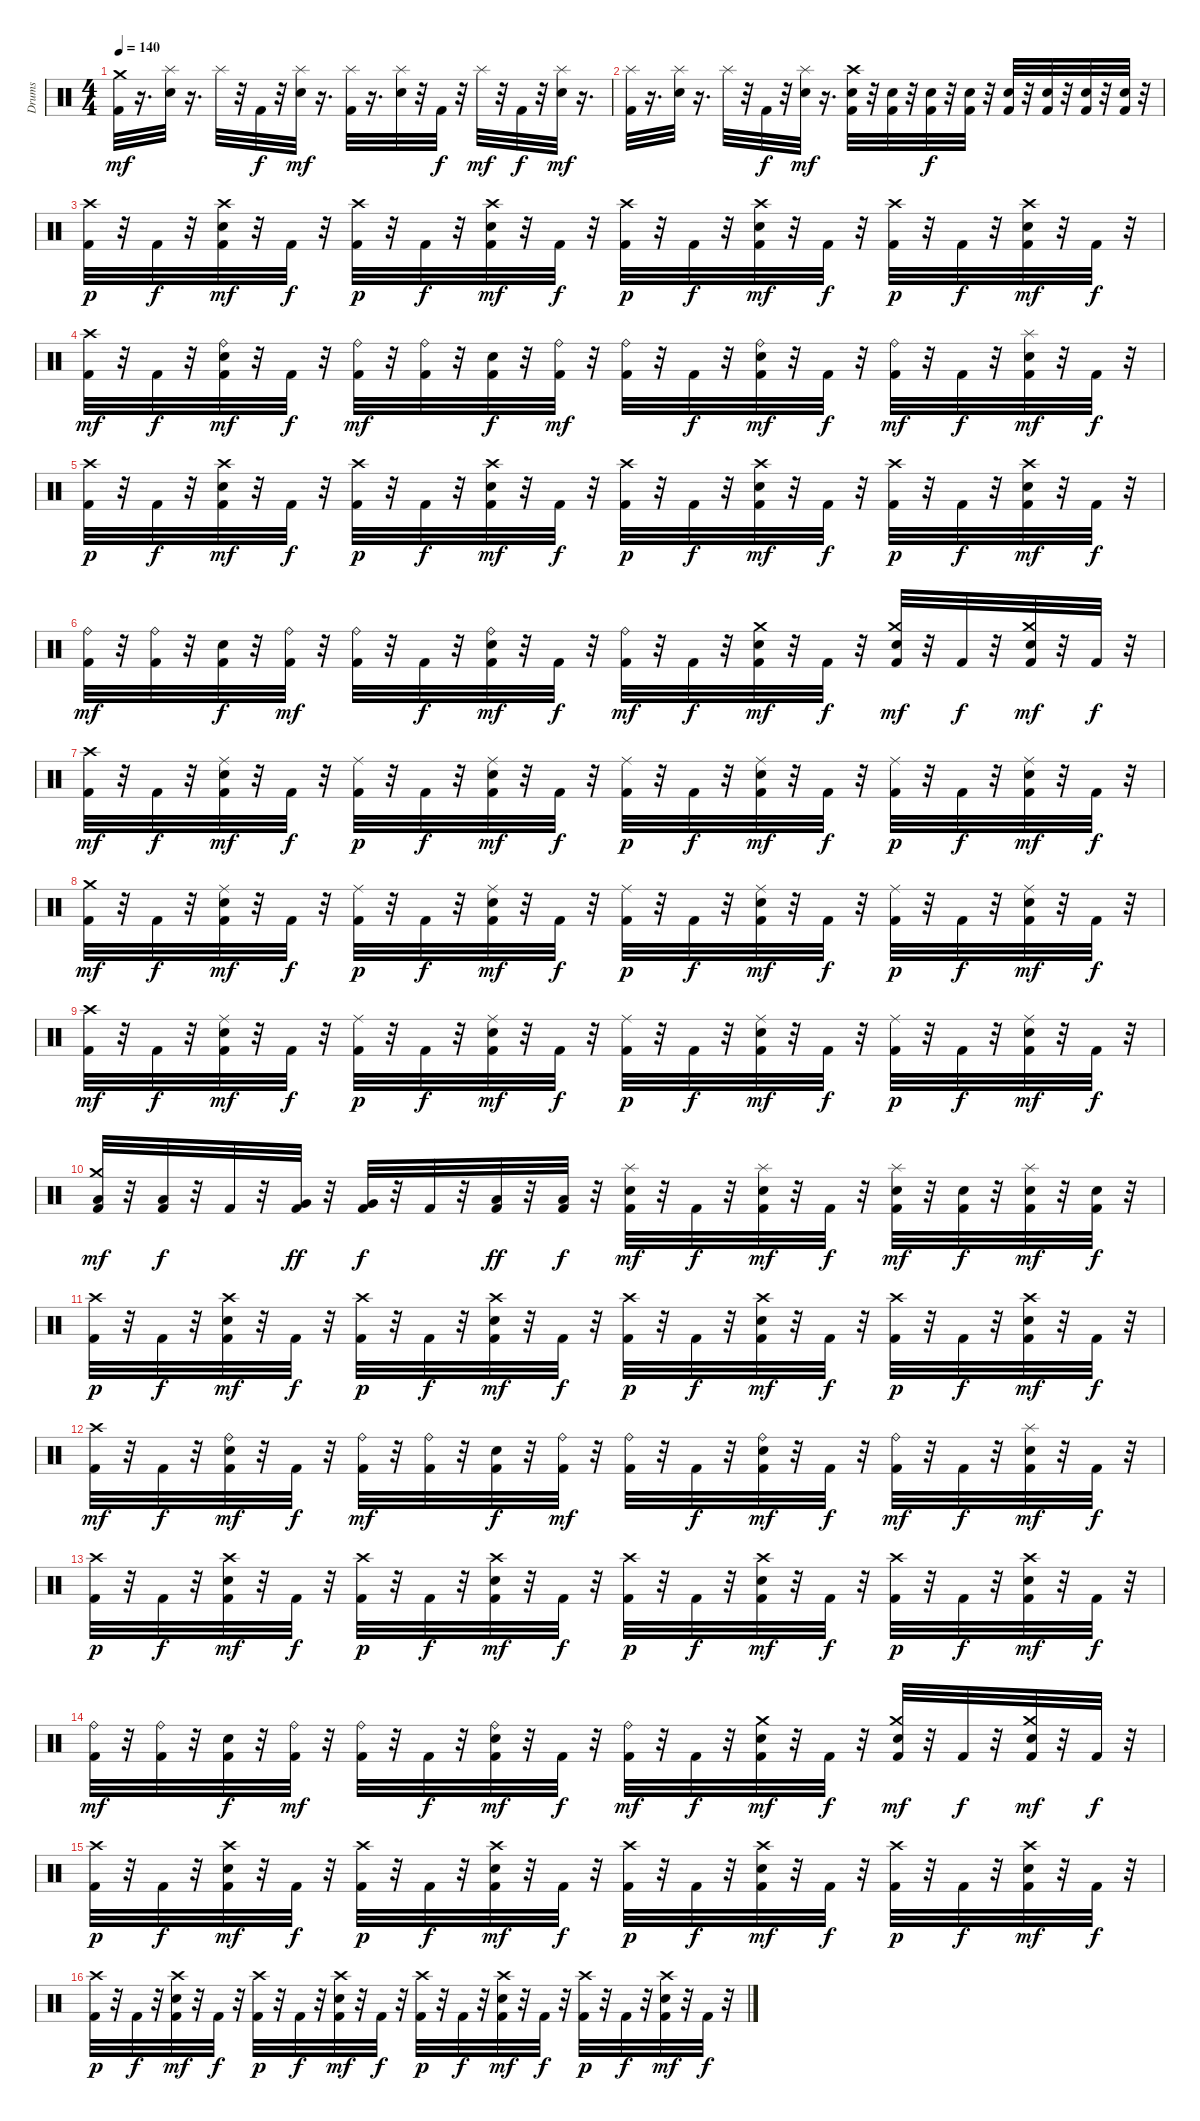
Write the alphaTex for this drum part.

\track ("Drums" "Drums") {instrument percussion}
\staff {score}
\articulation defaults
\ts (4 4)
\tempo 140
\clef neutral
\ks c
("Kick (hit) 2" "Crash medium (hit)").32{dy mf} r.16{d} ("Electric Snare (hit)" "Splash (hit)").32 r.16{d} "Splash (hit)".32 r.32 "Kick (hit) 2".32{dy f} r.32 ("Electric Snare (hit)" "Splash (hit)").32{dy mf} r.16{d} ("Kick (hit) 2" "Splash (hit)").32 r.16{d} ("Electric Snare (hit)" "Splash (hit)").32 r.32 "Kick (hit) 2".32{dy f} r.32 "Splash (hit)".32{dy mf} r.32 "Kick (hit) 2".32{dy f} r.32 ("Electric Snare (hit)" "Splash (hit)").32{dy mf} r.16{d} |
("Kick (hit) 2" "Splash (hit)").32 r.16{d} ("Electric Snare (hit)" "Splash (hit)").32 r.16{d} "Splash (hit)".32 r.32 "Kick (hit) 2".32{dy f} r.32 ("Electric Snare (hit)" "Splash (hit)").32{dy mf} r.16{d} ("Kick (hit) 2" "Electric Snare (hit)" "Crash high (hit)").32 r.32 ("Kick (hit) 2" "Electric Snare (hit)").32 r.32 ("Kick (hit) 2" "Electric Snare (hit)").32{dy f} r.32 ("Kick (hit) 2" "Electric Snare (hit)").32 r.32 ("Kick (hit) 2" "Electric Snare (hit)").32 r.32 ("Kick (hit) 2" "Electric Snare (hit)").32 r.32 ("Kick (hit) 2" "Electric Snare (hit)").32 r.32 ("Kick (hit) 2" "Electric Snare (hit)").32 r.32 |
("Kick (hit) 2" "Crash high (hit)").32{dy p} r.32 "Kick (hit) 2".32{dy f} r.32 ("Kick (hit) 2" "Electric Snare (hit)" "Crash high (hit)").32{dy mf} r.32 "Kick (hit) 2".32{dy f} r.32 ("Kick (hit) 2" "Crash high (hit)").32{dy p} r.32 "Kick (hit) 2".32{dy f} r.32 ("Kick (hit) 2" "Electric Snare (hit)" "Crash high (hit)").32{dy mf} r.32 "Kick (hit) 2".32{dy f} r.32 ("Kick (hit) 2" "Crash high (hit)").32{dy p} r.32 "Kick (hit) 2".32{dy f} r.32 ("Kick (hit) 2" "Electric Snare (hit)" "Crash high (hit)").32{dy mf} r.32 "Kick (hit) 2".32{dy f} r.32 ("Kick (hit) 2" "Crash high (hit)").32{dy p} r.32 "Kick (hit) 2".32{dy f} r.32 ("Kick (hit) 2" "Electric Snare (hit)" "Crash high (hit)").32{dy mf} r.32 "Kick (hit) 2".32{dy f} r.32 |
("Kick (hit) 2" "Crash high (hit)").32{dy mf} r.32 "Kick (hit) 2".32{dy f} r.32 ("Kick (hit) 2" "Electric Snare (hit)" "Ride (bell)").32{dy mf} r.32 "Kick (hit) 2".32{dy f} r.32 ("Kick (hit) 2" "Ride (bell)").32{dy mf} r.32 ("Kick (hit) 2" "Ride (bell)").32 r.32 ("Kick (hit) 2" "Electric Snare (hit)").32{dy f} r.32 ("Kick (hit) 2" "Ride (bell)").32{dy mf} r.32 ("Kick (hit) 2" "Ride (bell)").32 r.32 "Kick (hit) 2".32{dy f} r.32 ("Kick (hit) 2" "Electric Snare (hit)" "Ride (bell)").32{dy mf} r.32 "Kick (hit) 2".32{dy f} r.32 ("Kick (hit) 2" "Ride (bell)").32{dy mf} r.32 "Kick (hit) 2".32{dy f} r.32 ("Kick (hit) 2" "Electric Snare (hit)" "Splash (hit)").32{dy mf} r.32 "Kick (hit) 2".32{dy f} r.32 |
("Kick (hit) 2" "Crash high (hit)").32{dy p} r.32 "Kick (hit) 2".32{dy f} r.32 ("Kick (hit) 2" "Electric Snare (hit)" "Crash high (hit)").32{dy mf} r.32 "Kick (hit) 2".32{dy f} r.32 ("Kick (hit) 2" "Crash high (hit)").32{dy p} r.32 "Kick (hit) 2".32{dy f} r.32 ("Kick (hit) 2" "Electric Snare (hit)" "Crash high (hit)").32{dy mf} r.32 "Kick (hit) 2".32{dy f} r.32 ("Kick (hit) 2" "Crash high (hit)").32{dy p} r.32 "Kick (hit) 2".32{dy f} r.32 ("Kick (hit) 2" "Electric Snare (hit)" "Crash high (hit)").32{dy mf} r.32 "Kick (hit) 2".32{dy f} r.32 ("Kick (hit) 2" "Crash high (hit)").32{dy p} r.32 "Kick (hit) 2".32{dy f} r.32 ("Kick (hit) 2" "Electric Snare (hit)" "Crash high (hit)").32{dy mf} r.32 "Kick (hit) 2".32{dy f} r.32 |
("Kick (hit) 2" "Ride (bell)").32{dy mf} r.32 ("Kick (hit) 2" "Ride (bell)").32 r.32 ("Kick (hit) 2" "Electric Snare (hit)").32{dy f} r.32 ("Kick (hit) 2" "Ride (bell)").32{dy mf} r.32 ("Kick (hit) 2" "Ride (bell)").32 r.32 "Kick (hit) 2".32{dy f} r.32 ("Kick (hit) 2" "Electric Snare (hit)" "Ride (bell)").32{dy mf} r.32 "Kick (hit) 2".32{dy f} r.32 ("Kick (hit) 2" "Ride (bell)").32{dy mf} r.32 "Kick (hit) 2".32{dy f} r.32 ("Kick (hit) 2" "Electric Snare (hit)" "Crash medium (hit)").32{dy mf} r.32 "Kick (hit) 2".32{dy f} r.32 ("Kick (hit) 2" "Electric Snare (hit)" "Crash medium (hit)").32{dy mf} r.32 "Kick (hit) 2".32{dy f} r.32 ("Kick (hit) 2" "Electric Snare (hit)" "Crash medium (hit)").32{dy mf} r.32 "Kick (hit) 2".32{dy f} r.32 |
("Kick (hit) 2" "Crash high (hit)").32{dy mf} r.32 "Kick (hit) 2".32{dy f} r.32 ("Kick (hit) 2" "Electric Snare (hit)" "Ride (middle)").32{dy mf} r.32 "Kick (hit) 2".32{dy f} r.32 ("Kick (hit) 2" "Ride (middle)").32{dy p} r.32 "Kick (hit) 2".32{dy f} r.32 ("Kick (hit) 2" "Electric Snare (hit)" "Ride (middle)").32{dy mf} r.32 "Kick (hit) 2".32{dy f} r.32 ("Kick (hit) 2" "Ride (middle)").32{dy p} r.32 "Kick (hit) 2".32{dy f} r.32 ("Kick (hit) 2" "Electric Snare (hit)" "Ride (middle)").32{dy mf} r.32 "Kick (hit) 2".32{dy f} r.32 ("Kick (hit) 2" "Ride (middle)").32{dy p} r.32 "Kick (hit) 2".32{dy f} r.32 ("Kick (hit) 2" "Electric Snare (hit)" "Ride (middle)").32{dy mf} r.32 "Kick (hit) 2".32{dy f} r.32 |
("Kick (hit) 2" "Crash medium (hit)").32{dy mf} r.32 "Kick (hit) 2".32{dy f} r.32 ("Kick (hit) 2" "Electric Snare (hit)" "Ride (middle)").32{dy mf} r.32 "Kick (hit) 2".32{dy f} r.32 ("Kick (hit) 2" "Ride (middle)").32{dy p} r.32 "Kick (hit) 2".32{dy f} r.32 ("Kick (hit) 2" "Electric Snare (hit)" "Ride (middle)").32{dy mf} r.32 "Kick (hit) 2".32{dy f} r.32 ("Kick (hit) 2" "Ride (middle)").32{dy p} r.32 "Kick (hit) 2".32{dy f} r.32 ("Kick (hit) 2" "Electric Snare (hit)" "Ride (middle)").32{dy mf} r.32 "Kick (hit) 2".32{dy f} r.32 ("Kick (hit) 2" "Ride (middle)").32{dy p} r.32 "Kick (hit) 2".32{dy f} r.32 ("Kick (hit) 2" "Electric Snare (hit)" "Ride (middle)").32{dy mf} r.32 "Kick (hit) 2".32{dy f} r.32 |
("Kick (hit) 2" "Crash high (hit)").32{dy mf} r.32 "Kick (hit) 2".32{dy f} r.32 ("Kick (hit) 2" "Electric Snare (hit)" "Ride (middle)").32{dy mf} r.32 "Kick (hit) 2".32{dy f} r.32 ("Kick (hit) 2" "Ride (middle)").32{dy p} r.32 "Kick (hit) 2".32{dy f} r.32 ("Kick (hit) 2" "Electric Snare (hit)" "Ride (middle)").32{dy mf} r.32 "Kick (hit) 2".32{dy f} r.32 ("Kick (hit) 2" "Ride (middle)").32{dy p} r.32 "Kick (hit) 2".32{dy f} r.32 ("Kick (hit) 2" "Electric Snare (hit)" "Ride (middle)").32{dy mf} r.32 "Kick (hit) 2".32{dy f} r.32 ("Kick (hit) 2" "Ride (middle)").32{dy p} r.32 "Kick (hit) 2".32{dy f} r.32 ("Kick (hit) 2" "Electric Snare (hit)" "Ride (middle)").32{dy mf} r.32 "Kick (hit) 2".32{dy f} r.32 |
("Kick (hit) 2" "Low Tom (hit)" "Crash medium (hit)").32{dy mf} r.32 ("Kick (hit) 2" "Low Tom (hit)").32{dy f} r.32 "Kick (hit) 2".32 r.32 ("Kick (hit) 2" "Very Low Tom (hit)").32{dy ff} r.32 ("Kick (hit) 2" "Very Low Tom (hit)").32{dy f} r.32 "Kick (hit) 2".32 r.32 ("Kick (hit) 2" "Low Floor Tom (hit)").32{dy ff} r.32 ("Kick (hit) 2" "Low Floor Tom (hit)").32{dy f} r.32 ("Kick (hit) 2" "Electric Snare (hit)" "Splash (hit)").32{dy mf} r.32 "Kick (hit) 2".32{dy f} r.32 ("Kick (hit) 2" "Electric Snare (hit)" "Splash (hit)").32{dy mf} r.32 "Kick (hit) 2".32{dy f} r.32 ("Kick (hit) 2" "Electric Snare (hit)" "Splash (hit)").32{dy mf} r.32 ("Kick (hit) 2" "Electric Snare (hit)").32{dy f} r.32 ("Kick (hit) 2" "Electric Snare (hit)" "Splash (hit)").32{dy mf} r.32 ("Kick (hit) 2" "Electric Snare (hit)").32{dy f} r.32 |
("Kick (hit) 2" "Crash high (hit)").32{dy p} r.32 "Kick (hit) 2".32{dy f} r.32 ("Kick (hit) 2" "Electric Snare (hit)" "Crash high (hit)").32{dy mf} r.32 "Kick (hit) 2".32{dy f} r.32 ("Kick (hit) 2" "Crash high (hit)").32{dy p} r.32 "Kick (hit) 2".32{dy f} r.32 ("Kick (hit) 2" "Electric Snare (hit)" "Crash high (hit)").32{dy mf} r.32 "Kick (hit) 2".32{dy f} r.32 ("Kick (hit) 2" "Crash high (hit)").32{dy p} r.32 "Kick (hit) 2".32{dy f} r.32 ("Kick (hit) 2" "Electric Snare (hit)" "Crash high (hit)").32{dy mf} r.32 "Kick (hit) 2".32{dy f} r.32 ("Kick (hit) 2" "Crash high (hit)").32{dy p} r.32 "Kick (hit) 2".32{dy f} r.32 ("Kick (hit) 2" "Electric Snare (hit)" "Crash high (hit)").32{dy mf} r.32 "Kick (hit) 2".32{dy f} r.32 |
("Kick (hit) 2" "Crash high (hit)").32{dy mf} r.32 "Kick (hit) 2".32{dy f} r.32 ("Kick (hit) 2" "Electric Snare (hit)" "Ride (bell)").32{dy mf} r.32 "Kick (hit) 2".32{dy f} r.32 ("Kick (hit) 2" "Ride (bell)").32{dy mf} r.32 ("Kick (hit) 2" "Ride (bell)").32 r.32 ("Kick (hit) 2" "Electric Snare (hit)").32{dy f} r.32 ("Kick (hit) 2" "Ride (bell)").32{dy mf} r.32 ("Kick (hit) 2" "Ride (bell)").32 r.32 "Kick (hit) 2".32{dy f} r.32 ("Kick (hit) 2" "Electric Snare (hit)" "Ride (bell)").32{dy mf} r.32 "Kick (hit) 2".32{dy f} r.32 ("Kick (hit) 2" "Ride (bell)").32{dy mf} r.32 "Kick (hit) 2".32{dy f} r.32 ("Kick (hit) 2" "Electric Snare (hit)" "Splash (hit)").32{dy mf} r.32 "Kick (hit) 2".32{dy f} r.32 |
("Kick (hit) 2" "Crash high (hit)").32{dy p} r.32 "Kick (hit) 2".32{dy f} r.32 ("Kick (hit) 2" "Electric Snare (hit)" "Crash high (hit)").32{dy mf} r.32 "Kick (hit) 2".32{dy f} r.32 ("Kick (hit) 2" "Crash high (hit)").32{dy p} r.32 "Kick (hit) 2".32{dy f} r.32 ("Kick (hit) 2" "Electric Snare (hit)" "Crash high (hit)").32{dy mf} r.32 "Kick (hit) 2".32{dy f} r.32 ("Kick (hit) 2" "Crash high (hit)").32{dy p} r.32 "Kick (hit) 2".32{dy f} r.32 ("Kick (hit) 2" "Electric Snare (hit)" "Crash high (hit)").32{dy mf} r.32 "Kick (hit) 2".32{dy f} r.32 ("Kick (hit) 2" "Crash high (hit)").32{dy p} r.32 "Kick (hit) 2".32{dy f} r.32 ("Kick (hit) 2" "Electric Snare (hit)" "Crash high (hit)").32{dy mf} r.32 "Kick (hit) 2".32{dy f} r.32 |
("Kick (hit) 2" "Ride (bell)").32{dy mf} r.32 ("Kick (hit) 2" "Ride (bell)").32 r.32 ("Kick (hit) 2" "Electric Snare (hit)").32{dy f} r.32 ("Kick (hit) 2" "Ride (bell)").32{dy mf} r.32 ("Kick (hit) 2" "Ride (bell)").32 r.32 "Kick (hit) 2".32{dy f} r.32 ("Kick (hit) 2" "Electric Snare (hit)" "Ride (bell)").32{dy mf} r.32 "Kick (hit) 2".32{dy f} r.32 ("Kick (hit) 2" "Ride (bell)").32{dy mf} r.32 "Kick (hit) 2".32{dy f} r.32 ("Kick (hit) 2" "Electric Snare (hit)" "Crash medium (hit)").32{dy mf} r.32 "Kick (hit) 2".32{dy f} r.32 ("Kick (hit) 2" "Electric Snare (hit)" "Crash medium (hit)").32{dy mf} r.32 "Kick (hit) 2".32{dy f} r.32 ("Kick (hit) 2" "Electric Snare (hit)" "Crash medium (hit)").32{dy mf} r.32 "Kick (hit) 2".32{dy f} r.32 |
("Kick (hit) 2" "Crash high (hit)").32{dy p} r.32 "Kick (hit) 2".32{dy f} r.32 ("Kick (hit) 2" "Electric Snare (hit)" "Crash high (hit)").32{dy mf} r.32 "Kick (hit) 2".32{dy f} r.32 ("Kick (hit) 2" "Crash high (hit)").32{dy p} r.32 "Kick (hit) 2".32{dy f} r.32 ("Kick (hit) 2" "Electric Snare (hit)" "Crash high (hit)").32{dy mf} r.32 "Kick (hit) 2".32{dy f} r.32 ("Kick (hit) 2" "Crash high (hit)").32{dy p} r.32 "Kick (hit) 2".32{dy f} r.32 ("Kick (hit) 2" "Electric Snare (hit)" "Crash high (hit)").32{dy mf} r.32 "Kick (hit) 2".32{dy f} r.32 ("Kick (hit) 2" "Crash high (hit)").32{dy p} r.32 "Kick (hit) 2".32{dy f} r.32 ("Kick (hit) 2" "Electric Snare (hit)" "Crash high (hit)").32{dy mf} r.32 "Kick (hit) 2".32{dy f} r.32 |
("Kick (hit) 2" "Crash high (hit)").32{dy p} r.32 "Kick (hit) 2".32{dy f} r.32 ("Kick (hit) 2" "Electric Snare (hit)" "Crash high (hit)").32{dy mf} r.32 "Kick (hit) 2".32{dy f} r.32 ("Kick (hit) 2" "Crash high (hit)").32{dy p} r.32 "Kick (hit) 2".32{dy f} r.32 ("Kick (hit) 2" "Electric Snare (hit)" "Crash high (hit)").32{dy mf} r.32 "Kick (hit) 2".32{dy f} r.32 ("Kick (hit) 2" "Crash high (hit)").32{dy p} r.32 "Kick (hit) 2".32{dy f} r.32 ("Kick (hit) 2" "Electric Snare (hit)" "Crash high (hit)").32{dy mf} r.32 "Kick (hit) 2".32{dy f} r.32 ("Kick (hit) 2" "Crash high (hit)").32{dy p} r.32 "Kick (hit) 2".32{dy f} r.32 ("Kick (hit) 2" "Electric Snare (hit)" "Crash high (hit)").32{dy mf} r.32 "Kick (hit) 2".32{dy f} r.32
